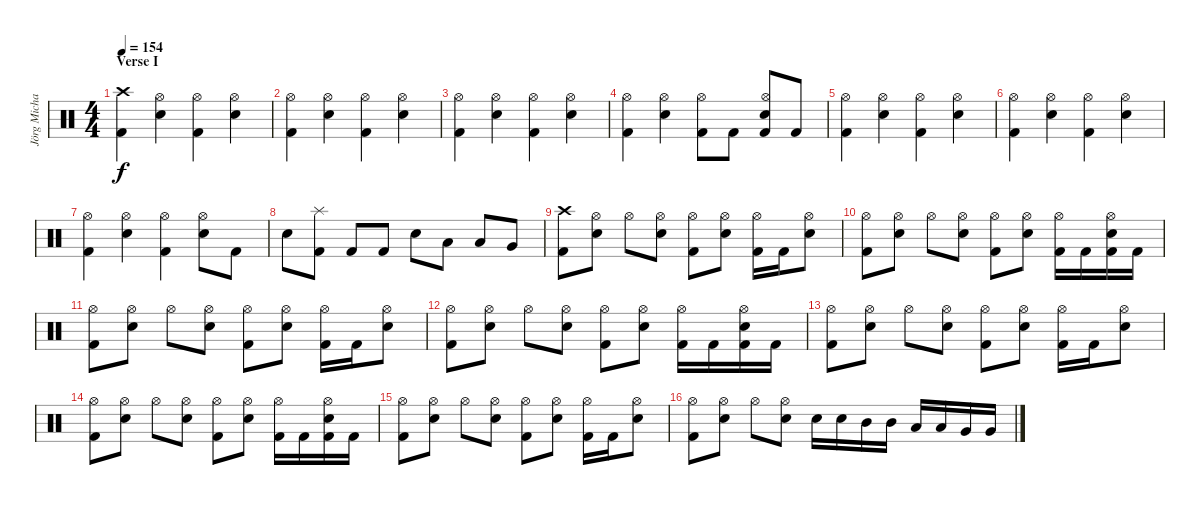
\track ("Jörg Michael - Drums" "Jörg Micha") {instrument percussion}
\staff {score}
\articulation defaults
\ts (4 4)
\section ("" "Verse I")
\tempo 154
\clef neutral
\ks c
("Crash high (hit)" "Kick (hit) 2").4{dy f} ("Hi-Hat (open)" "Electric Snare (hit)").4 ("Hi-Hat (open)" "Kick (hit) 2").4 ("Hi-Hat (open)" "Electric Snare (hit)").4 |
("Hi-Hat (open)" "Kick (hit) 2").4 ("Hi-Hat (open)" "Electric Snare (hit)").4 ("Hi-Hat (open)" "Kick (hit) 2").4 ("Hi-Hat (open)" "Electric Snare (hit)").4 |
("Hi-Hat (open)" "Kick (hit) 2").4 ("Hi-Hat (open)" "Electric Snare (hit)").4 ("Hi-Hat (open)" "Kick (hit) 2").4 ("Hi-Hat (open)" "Electric Snare (hit)").4 |
("Hi-Hat (open)" "Kick (hit) 2").4 ("Hi-Hat (open)" "Electric Snare (hit)").4 ("Hi-Hat (open)" "Kick (hit) 2").8 "Kick (hit) 2".8 ("Hi-Hat (open)" "Electric Snare (hit)" "Kick (hit) 2").8 "Kick (hit) 2".8 |
("Hi-Hat (open)" "Kick (hit) 2").4 ("Hi-Hat (open)" "Electric Snare (hit)").4 ("Hi-Hat (open)" "Kick (hit) 2").4 ("Hi-Hat (open)" "Electric Snare (hit)").4 |
("Hi-Hat (open)" "Kick (hit) 2").4 ("Hi-Hat (open)" "Electric Snare (hit)").4 ("Hi-Hat (open)" "Kick (hit) 2").4 ("Hi-Hat (open)" "Electric Snare (hit)").4 |
("Hi-Hat (open)" "Kick (hit) 2").4 ("Hi-Hat (open)" "Electric Snare (hit)").4 ("Hi-Hat (open)" "Kick (hit) 2").4 ("Hi-Hat (open)" "Electric Snare (hit)").8 "Kick (hit) 2".8 |
"Electric Snare (hit)".8 ("Splash (hit)" "Kick (hit) 2").8 "Kick (hit) 2".8 "Kick (hit) 2".8 "Electric Snare (hit)".8 "Low Tom (hit)".8 "Low Tom (hit)".8 "Very Low Tom (hit)".8 |
("Crash high (hit)" "Kick (hit) 2").8 ("Hi-Hat (open)" "Electric Snare (hit)").8 "Hi-Hat (open)".8 ("Hi-Hat (open)" "Electric Snare (hit)").8 ("Hi-Hat (open)" "Kick (hit) 2").8 ("Hi-Hat (open)" "Electric Snare (hit)").8 ("Hi-Hat (open)" "Kick (hit) 2").16 "Kick (hit) 2".16 ("Hi-Hat (open)" "Electric Snare (hit)").8 |
("Hi-Hat (open)" "Kick (hit) 2").8 ("Hi-Hat (open)" "Electric Snare (hit)").8 "Hi-Hat (open)".8 ("Hi-Hat (open)" "Electric Snare (hit)").8 ("Hi-Hat (open)" "Kick (hit) 2").8 ("Hi-Hat (open)" "Electric Snare (hit)").8 ("Hi-Hat (open)" "Kick (hit) 2").16 "Kick (hit) 2".16 ("Hi-Hat (open)" "Electric Snare (hit)" "Kick (hit) 2").16 "Kick (hit) 2".16 |
("Hi-Hat (open)" "Kick (hit) 2").8 ("Hi-Hat (open)" "Electric Snare (hit)").8 "Hi-Hat (open)".8 ("Hi-Hat (open)" "Electric Snare (hit)").8 ("Hi-Hat (open)" "Kick (hit) 2").8 ("Hi-Hat (open)" "Electric Snare (hit)").8 ("Hi-Hat (open)" "Kick (hit) 2").16 "Kick (hit) 2".16 ("Hi-Hat (open)" "Electric Snare (hit)").8 |
("Hi-Hat (open)" "Kick (hit) 2").8 ("Hi-Hat (open)" "Electric Snare (hit)").8 "Hi-Hat (open)".8 ("Hi-Hat (open)" "Electric Snare (hit)").8 ("Hi-Hat (open)" "Kick (hit) 2").8 ("Hi-Hat (open)" "Electric Snare (hit)").8 ("Hi-Hat (open)" "Kick (hit) 2").16 "Kick (hit) 2".16 ("Hi-Hat (open)" "Electric Snare (hit)" "Kick (hit) 2").16 "Kick (hit) 2".16 |
("Hi-Hat (open)" "Kick (hit) 2").8 ("Hi-Hat (open)" "Electric Snare (hit)").8 "Hi-Hat (open)".8 ("Hi-Hat (open)" "Electric Snare (hit)").8 ("Hi-Hat (open)" "Kick (hit) 2").8 ("Hi-Hat (open)" "Electric Snare (hit)").8 ("Hi-Hat (open)" "Kick (hit) 2").16 "Kick (hit) 2".16 ("Hi-Hat (open)" "Electric Snare (hit)").8 |
("Hi-Hat (open)" "Kick (hit) 2").8 ("Hi-Hat (open)" "Electric Snare (hit)").8 "Hi-Hat (open)".8 ("Hi-Hat (open)" "Electric Snare (hit)").8 ("Hi-Hat (open)" "Kick (hit) 2").8 ("Hi-Hat (open)" "Electric Snare (hit)").8 ("Hi-Hat (open)" "Kick (hit) 2").16 "Kick (hit) 2".16 ("Hi-Hat (open)" "Electric Snare (hit)" "Kick (hit) 2").16 "Kick (hit) 2".16 |
("Hi-Hat (open)" "Kick (hit) 2").8 ("Hi-Hat (open)" "Electric Snare (hit)").8 "Hi-Hat (open)".8 ("Hi-Hat (open)" "Electric Snare (hit)").8 ("Hi-Hat (open)" "Kick (hit) 2").8 ("Hi-Hat (open)" "Electric Snare (hit)").8 ("Hi-Hat (open)" "Kick (hit) 2").16 "Kick (hit) 2".16 ("Hi-Hat (open)" "Electric Snare (hit)").8 |
("Hi-Hat (open)" "Kick (hit) 2").8 ("Hi-Hat (open)" "Electric Snare (hit)").8 "Hi-Hat (open)".8 ("Hi-Hat (open)" "Electric Snare (hit)").8 "Electric Snare (hit)".16 "Electric Snare (hit)".16 "Mid Tom (hit)".16 "Mid Tom (hit)".16 "Low Tom (hit)".16 "Low Tom (hit)".16 "Very Low Tom (hit)".16 "Very Low Tom (hit)".16
